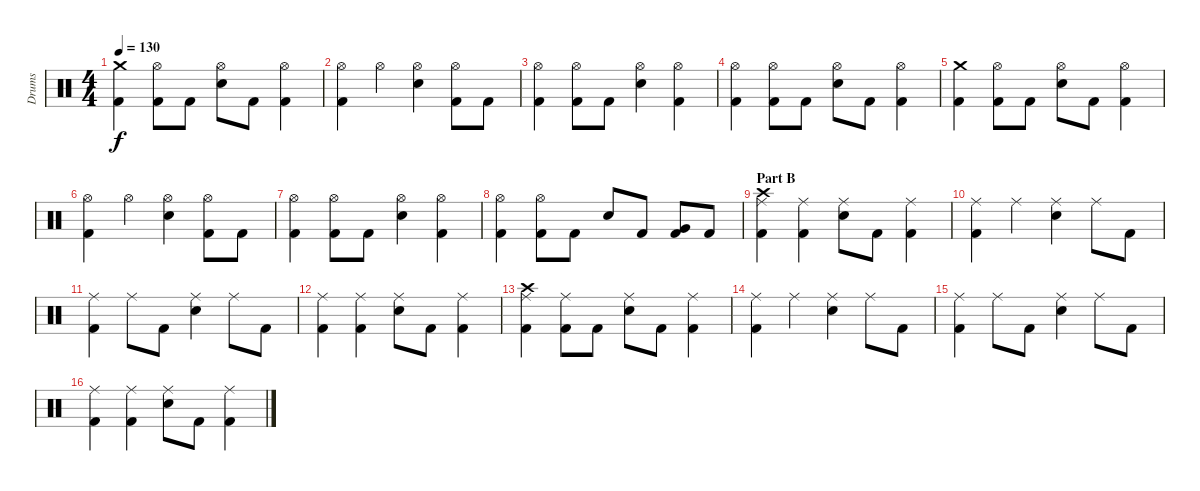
\track ("Drums" "Drums") {instrument percussion}
\staff {score}
\articulation defaults
\ts (4 4)
\tempo 130
\clef neutral
\ks c
("Crash medium (hit)" "Kick (hit) 2").4{dy f} ("Hi-Hat (open)" "Kick (hit) 2").8 "Kick (hit) 2".8 ("Hi-Hat (open)" "Electric Snare (hit)").8 "Kick (hit) 2".8 ("Hi-Hat (open)" "Kick (hit) 2").4 |
("Hi-Hat (open)" "Kick (hit) 2").4 "Hi-Hat (open)".4 ("Hi-Hat (open)" "Electric Snare (hit)").4 ("Hi-Hat (open)" "Kick (hit) 2").8 "Kick (hit) 2".8 |
("Hi-Hat (open)" "Kick (hit) 2").4 ("Hi-Hat (open)" "Kick (hit) 2").8 "Kick (hit) 2".8 ("Hi-Hat (open)" "Electric Snare (hit)").4 ("Hi-Hat (open)" "Kick (hit) 2").4 |
("Hi-Hat (open)" "Kick (hit) 2").4 ("Hi-Hat (open)" "Kick (hit) 2").8 "Kick (hit) 2".8 ("Hi-Hat (open)" "Electric Snare (hit)").8 "Kick (hit) 2".8 ("Hi-Hat (open)" "Kick (hit) 2").4 |
("Crash medium (hit)" "Kick (hit) 2").4 ("Hi-Hat (open)" "Kick (hit) 2").8 "Kick (hit) 2".8 ("Hi-Hat (open)" "Electric Snare (hit)").8 "Kick (hit) 2".8 ("Hi-Hat (open)" "Kick (hit) 2").4 |
("Hi-Hat (open)" "Kick (hit) 2").4 "Hi-Hat (open)".4 ("Hi-Hat (open)" "Electric Snare (hit)").4 ("Hi-Hat (open)" "Kick (hit) 2").8 "Kick (hit) 2".8 |
("Hi-Hat (open)" "Kick (hit) 2").4 ("Hi-Hat (open)" "Kick (hit) 2").8 "Kick (hit) 2".8 ("Hi-Hat (open)" "Electric Snare (hit)").4 ("Hi-Hat (open)" "Kick (hit) 2").4 |
("Hi-Hat (open)" "Kick (hit) 2").4 ("Hi-Hat (open)" "Kick (hit) 2").8 "Kick (hit) 2".8 "Electric Snare (hit)".8 "Kick (hit) 2".8 ("Very Low Tom (hit)" "Kick (hit) 2").8 "Kick (hit) 2".8 |
\section ("" "Part B")
("Ride (middle)" "Crash high (hit)" "Kick (hit) 2").4 ("Ride (middle)" "Kick (hit) 2").4 ("Ride (middle)" "Electric Snare (hit)").8 "Kick (hit) 2".8 ("Ride (middle)" "Kick (hit) 2").4 |
("Ride (middle)" "Kick (hit) 2").4 "Ride (middle)".4 ("Ride (middle)" "Electric Snare (hit)").4 "Ride (middle)".8 "Kick (hit) 2".8 |
("Ride (middle)" "Kick (hit) 2").4 "Ride (middle)".8 "Kick (hit) 2".8 ("Ride (middle)" "Electric Snare (hit)").4 "Ride (middle)".8 "Kick (hit) 2".8 |
("Ride (middle)" "Kick (hit) 2").4 ("Ride (middle)" "Kick (hit) 2").4 ("Ride (middle)" "Electric Snare (hit)").8 "Kick (hit) 2".8 ("Ride (middle)" "Kick (hit) 2").4 |
("Ride (middle)" "Crash high (hit)" "Kick (hit) 2").4 ("Ride (middle)" "Kick (hit) 2").8 "Kick (hit) 2".8 ("Ride (middle)" "Electric Snare (hit)").8 "Kick (hit) 2".8 ("Ride (middle)" "Kick (hit) 2").4 |
("Ride (middle)" "Kick (hit) 2").4 "Ride (middle)".4 ("Ride (middle)" "Electric Snare (hit)").4 "Ride (middle)".8 "Kick (hit) 2".8 |
("Ride (middle)" "Kick (hit) 2").4 "Ride (middle)".8 "Kick (hit) 2".8 ("Ride (middle)" "Electric Snare (hit)").4 "Ride (middle)".8 "Kick (hit) 2".8 |
("Ride (middle)" "Kick (hit) 2").4 ("Ride (middle)" "Kick (hit) 2").4 ("Ride (middle)" "Electric Snare (hit)").8 "Kick (hit) 2".8 ("Ride (middle)" "Kick (hit) 2").4
